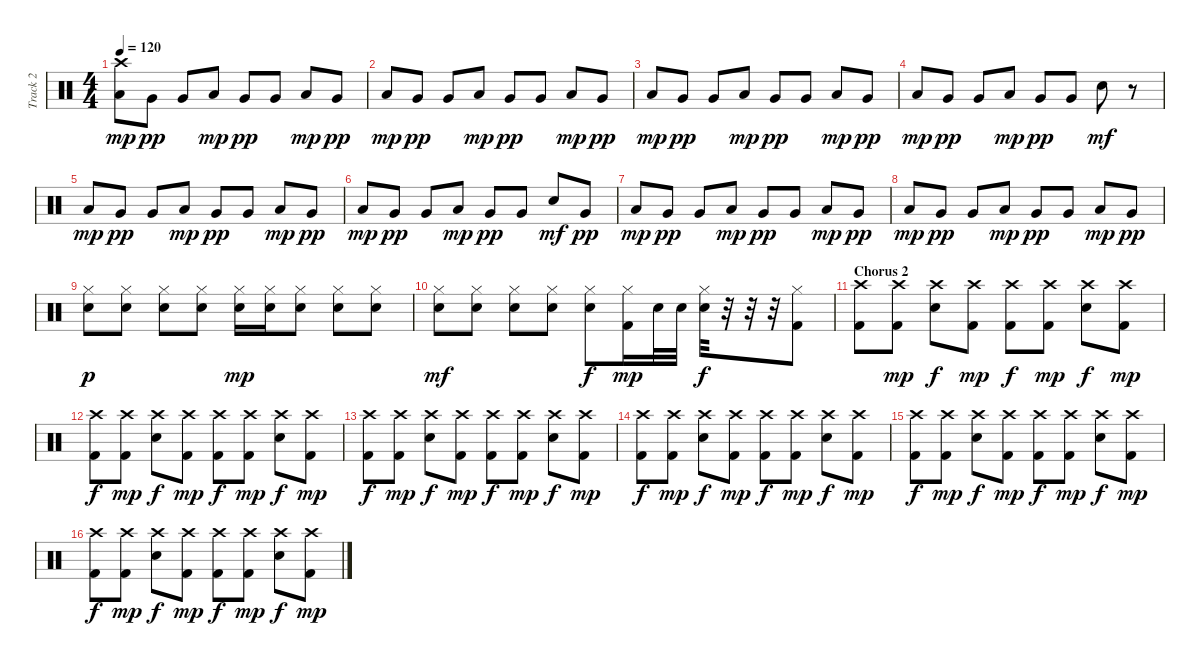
\track ("Track 2" "Track 2") {instrument percussion}
\staff {score}
\articulation defaults
\ts (4 4)
\tempo 120
\clef neutral
\ks c
("Low Tom (hit)" "Crash high (hit)").8{dy mp} "Very Low Tom (hit)".8{dy pp} "Very Low Tom (hit)".8 "Low Tom (hit)".8{dy mp} "Very Low Tom (hit)".8{dy pp} "Very Low Tom (hit)".8 "Low Tom (hit)".8{dy mp} "Very Low Tom (hit)".8{dy pp} |
"Low Tom (hit)".8{dy mp} "Very Low Tom (hit)".8{dy pp} "Very Low Tom (hit)".8 "Low Tom (hit)".8{dy mp} "Very Low Tom (hit)".8{dy pp} "Very Low Tom (hit)".8 "Low Tom (hit)".8{dy mp} "Very Low Tom (hit)".8{dy pp} |
"Low Tom (hit)".8{dy mp} "Very Low Tom (hit)".8{dy pp} "Very Low Tom (hit)".8 "Low Tom (hit)".8{dy mp} "Very Low Tom (hit)".8{dy pp} "Very Low Tom (hit)".8 "Low Tom (hit)".8{dy mp} "Very Low Tom (hit)".8{dy pp} |
"Low Tom (hit)".8{dy mp} "Very Low Tom (hit)".8{dy pp} "Very Low Tom (hit)".8 "Low Tom (hit)".8{dy mp} "Very Low Tom (hit)".8{dy pp} "Very Low Tom (hit)".8 "Electric Snare (hit)".8{dy mf} r.8 |
"Low Tom (hit)".8{dy mp} "Very Low Tom (hit)".8{dy pp} "Very Low Tom (hit)".8 "Low Tom (hit)".8{dy mp} "Very Low Tom (hit)".8{dy pp} "Very Low Tom (hit)".8 "Low Tom (hit)".8{dy mp} "Very Low Tom (hit)".8{dy pp} |
"Low Tom (hit)".8{dy mp} "Very Low Tom (hit)".8{dy pp} "Very Low Tom (hit)".8 "Low Tom (hit)".8{dy mp} "Very Low Tom (hit)".8{dy pp} "Very Low Tom (hit)".8 "Electric Snare (hit)".8{dy mf} "Very Low Tom (hit)".8{dy pp} |
"Low Tom (hit)".8{dy mp} "Very Low Tom (hit)".8{dy pp} "Very Low Tom (hit)".8 "Low Tom (hit)".8{dy mp} "Very Low Tom (hit)".8{dy pp} "Very Low Tom (hit)".8 "Low Tom (hit)".8{dy mp} "Very Low Tom (hit)".8{dy pp} |
"Low Tom (hit)".8{dy mp} "Very Low Tom (hit)".8{dy pp} "Very Low Tom (hit)".8 "Low Tom (hit)".8{dy mp} "Very Low Tom (hit)".8{dy pp} "Very Low Tom (hit)".8 "Low Tom (hit)".8{dy mp} "Very Low Tom (hit)".8{dy pp} |
("Hi-Hat (closed)" "Electric Snare (hit)").8{dy p} ("Hi-Hat (closed)" "Electric Snare (hit)").8 ("Hi-Hat (closed)" "Electric Snare (hit)").8 ("Hi-Hat (closed)" "Electric Snare (hit)").8 ("Hi-Hat (closed)" "Electric Snare (hit)").16{dy mp} ("Hi-Hat (closed)" "Electric Snare (hit)").16 ("Hi-Hat (closed)" "Electric Snare (hit)").8 ("Hi-Hat (closed)" "Electric Snare (hit)").8 ("Hi-Hat (closed)" "Electric Snare (hit)").8 |
("Hi-Hat (closed)" "Electric Snare (hit)").8{dy mf} ("Hi-Hat (closed)" "Electric Snare (hit)").8 ("Hi-Hat (closed)" "Electric Snare (hit)").8 ("Hi-Hat (closed)" "Electric Snare (hit)").8 ("Hi-Hat (closed)" "Electric Snare (hit)").8{dy f} ("Hi-Hat (closed)" "Kick (hit) 2").16{dy mp} "Electric Snare (hit)".32 "Electric Snare (hit)".32 ("Hi-Hat (closed)" "Electric Snare (hit)").32{dy f} r.32 r.32 r.32 ("Hi-Hat (closed)" "Kick (hit) 2").8 |
\section ("" "Chorus 2")
("Crash high (hit)" "Kick (hit) 2").8 ("Crash high (hit)" "Kick (hit) 2").8{dy mp} ("Crash high (hit)" "Electric Snare (hit)").8{dy f} ("Crash high (hit)" "Kick (hit) 2").8{dy mp} ("Crash high (hit)" "Kick (hit) 2").8{dy f} ("Crash high (hit)" "Kick (hit) 2").8{dy mp} ("Crash high (hit)" "Electric Snare (hit)").8{dy f} ("Crash high (hit)" "Kick (hit) 2").8{dy mp} |
("Crash high (hit)" "Kick (hit) 2").8{dy f} ("Crash high (hit)" "Kick (hit) 2").8{dy mp} ("Crash high (hit)" "Electric Snare (hit)").8{dy f} ("Crash high (hit)" "Kick (hit) 2").8{dy mp} ("Crash high (hit)" "Kick (hit) 2").8{dy f} ("Crash high (hit)" "Kick (hit) 2").8{dy mp} ("Crash high (hit)" "Electric Snare (hit)").8{dy f} ("Crash high (hit)" "Kick (hit) 2").8{dy mp} |
("Crash high (hit)" "Kick (hit) 2").8{dy f} ("Crash high (hit)" "Kick (hit) 2").8{dy mp} ("Crash high (hit)" "Electric Snare (hit)").8{dy f} ("Crash high (hit)" "Kick (hit) 2").8{dy mp} ("Crash high (hit)" "Kick (hit) 2").8{dy f} ("Crash high (hit)" "Kick (hit) 2").8{dy mp} ("Crash high (hit)" "Electric Snare (hit)").8{dy f} ("Crash high (hit)" "Kick (hit) 2").8{dy mp} |
("Crash high (hit)" "Kick (hit) 2").8{dy f} ("Crash high (hit)" "Kick (hit) 2").8{dy mp} ("Crash high (hit)" "Electric Snare (hit)").8{dy f} ("Crash high (hit)" "Kick (hit) 2").8{dy mp} ("Crash high (hit)" "Kick (hit) 2").8{dy f} ("Crash high (hit)" "Kick (hit) 2").8{dy mp} ("Crash high (hit)" "Electric Snare (hit)").8{dy f} ("Crash high (hit)" "Kick (hit) 2").8{dy mp} |
("Crash high (hit)" "Kick (hit) 2").8{dy f} ("Crash high (hit)" "Kick (hit) 2").8{dy mp} ("Crash high (hit)" "Electric Snare (hit)").8{dy f} ("Crash high (hit)" "Kick (hit) 2").8{dy mp} ("Crash high (hit)" "Kick (hit) 2").8{dy f} ("Crash high (hit)" "Kick (hit) 2").8{dy mp} ("Crash high (hit)" "Electric Snare (hit)").8{dy f} ("Crash high (hit)" "Kick (hit) 2").8{dy mp} |
("Crash high (hit)" "Kick (hit) 2").8{dy f} ("Crash high (hit)" "Kick (hit) 2").8{dy mp} ("Crash high (hit)" "Electric Snare (hit)").8{dy f} ("Crash high (hit)" "Kick (hit) 2").8{dy mp} ("Crash high (hit)" "Kick (hit) 2").8{dy f} ("Crash high (hit)" "Kick (hit) 2").8{dy mp} ("Crash high (hit)" "Electric Snare (hit)").8{dy f} ("Crash high (hit)" "Kick (hit) 2").8{dy mp}
